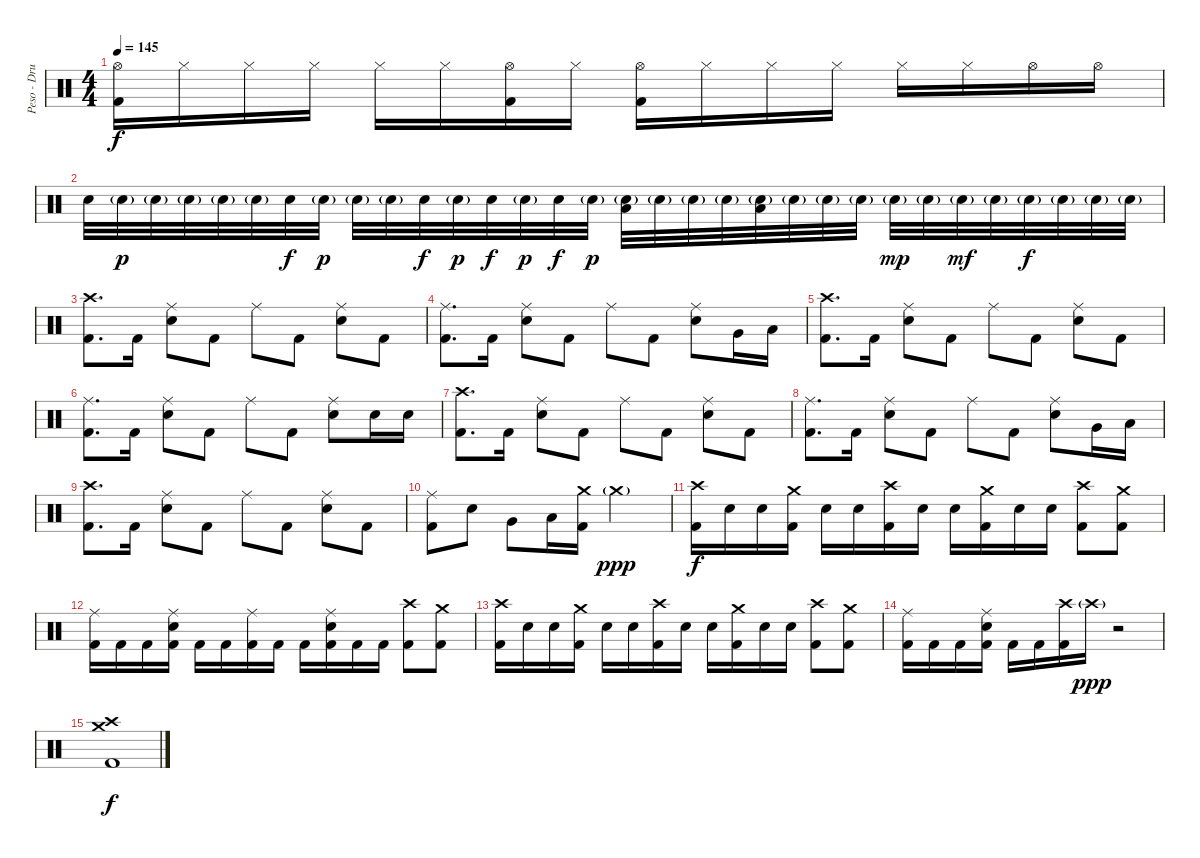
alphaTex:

\track ("Peso - Drums" "Peso - Dru") {instrument percussion}
\staff {score}
\articulation defaults
\ts (4 4)
\tempo 145
\clef neutral
\ks c
("Hi-Hat (open)" "Kick (hit) 2").16{dy f} "Hi-Hat (closed)".16 "Hi-Hat (closed)".16 "Hi-Hat (closed)".16 "Hi-Hat (closed)".16 "Hi-Hat (closed)".16 ("Hi-Hat (open)" "Kick (hit) 2").16 "Hi-Hat (closed)".16 ("Hi-Hat (open)" "Kick (hit) 2").16 "Hi-Hat (closed)".16 "Hi-Hat (closed)".16 "Hi-Hat (closed)".16 "Hi-Hat (closed)".16 "Hi-Hat (closed)".16 "Hi-Hat (open)".16 "Hi-Hat (open)".16 |
"Electric Snare (hit)".32 "Electric Snare (hit)"{g}.32{dy p} "Electric Snare (hit)"{g}.32 "Electric Snare (hit)"{g}.32 "Electric Snare (hit)"{g}.32 "Electric Snare (hit)"{g}.32 "Electric Snare (hit)".32{dy f} "Electric Snare (hit)"{g}.32{dy p} "Electric Snare (hit)"{g}.32 "Electric Snare (hit)"{g}.32 "Electric Snare (hit)".32{dy f} "Electric Snare (hit)"{g}.32{dy p} "Electric Snare (hit)".32{dy f} "Electric Snare (hit)"{g}.32{dy p} "Electric Snare (hit)".32{dy f} "Electric Snare (hit)"{g}.32{dy p} ("Low Tom (hit)" "Electric Snare (hit)"{g}).32 "Electric Snare (hit)"{g}.32 "Electric Snare (hit)"{g}.32 "Electric Snare (hit)"{g}.32 ("Low Tom (hit)" "Electric Snare (hit)"{g}).32 "Electric Snare (hit)"{g}.32 "Electric Snare (hit)"{g}.32 "Electric Snare (hit)"{g}.32 "Electric Snare (hit)"{g}.32{dy mp} "Electric Snare (hit)"{g}.32 "Electric Snare (hit)"{g}.32{dy mf} "Electric Snare (hit)"{g}.32 "Electric Snare (hit)"{g}.32{dy f} "Electric Snare (hit)"{g}.32 "Electric Snare (hit)"{g}.32 "Electric Snare (hit)"{g}.32 |
("Crash high (hit)" "Kick (hit) 2").8{d} "Kick (hit) 2".16 ("Ride (middle)" "Electric Snare (hit)").8 "Kick (hit) 2".8 "Ride (middle)".8 "Kick (hit) 2".8 ("Ride (middle)" "Electric Snare (hit)").8 "Kick (hit) 2".8 |
("Ride (middle)" "Kick (hit) 2").8{d} "Kick (hit) 2".16 ("Ride (middle)" "Electric Snare (hit)").8 "Kick (hit) 2".8 "Ride (middle)".8 "Kick (hit) 2".8 ("Ride (middle)" "Electric Snare (hit)").8 "Very Low Tom (hit)".16 "Low Tom (hit)".16 |
("Crash high (hit)" "Kick (hit) 2").8{d} "Kick (hit) 2".16 ("Ride (middle)" "Electric Snare (hit)").8 "Kick (hit) 2".8 "Ride (middle)".8 "Kick (hit) 2".8 ("Ride (middle)" "Electric Snare (hit)").8 "Kick (hit) 2".8 |
("Ride (middle)" "Kick (hit) 2").8{d} "Kick (hit) 2".16 ("Ride (middle)" "Electric Snare (hit)").8 "Kick (hit) 2".8 "Ride (middle)".8 "Kick (hit) 2".8 ("Ride (middle)" "Electric Snare (hit)").8 "Electric Snare (hit)".16 "Electric Snare (hit)".16 |
("Crash high (hit)" "Kick (hit) 2").8{d} "Kick (hit) 2".16 ("Ride (middle)" "Electric Snare (hit)").8 "Kick (hit) 2".8 "Ride (middle)".8 "Kick (hit) 2".8 ("Ride (middle)" "Electric Snare (hit)").8 "Kick (hit) 2".8 |
("Ride (middle)" "Kick (hit) 2").8{d} "Kick (hit) 2".16 ("Ride (middle)" "Electric Snare (hit)").8 "Kick (hit) 2".8 "Ride (middle)".8 "Kick (hit) 2".8 ("Ride (middle)" "Electric Snare (hit)").8 "Very Low Tom (hit)".16 "Low Tom (hit)".16 |
("Crash high (hit)" "Kick (hit) 2").8{d} "Kick (hit) 2".16 ("Ride (middle)" "Electric Snare (hit)").8 "Kick (hit) 2".8 "Ride (middle)".8 "Kick (hit) 2".8 ("Ride (middle)" "Electric Snare (hit)").8 "Kick (hit) 2".8 |
("Ride (middle)" "Kick (hit) 2").8 "Electric Snare (hit)".8 "Very Low Tom (hit)".8 "Low Floor Tom (hit)".16 ("Crash medium (hit)" "Kick (hit) 2").16 "Crash medium (hit)"{g}.2{dy ppp} |
("Crash high (hit)" "Kick (hit) 2").16{dy f} "Electric Snare (hit)".16 "Electric Snare (hit)".16 ("Crash medium (hit)" "Kick (hit) 2").16 "Electric Snare (hit)".16 "Electric Snare (hit)".16 ("Crash high (hit)" "Kick (hit) 2").16 "Electric Snare (hit)".16 "Electric Snare (hit)".16 ("Crash medium (hit)" "Kick (hit) 2").16 "Electric Snare (hit)".16 "Electric Snare (hit)".16 ("Crash high (hit)" "Kick (hit) 2").8 ("Crash medium (hit)" "Kick (hit) 2").8 |
("Ride (middle)" "Kick (hit) 2").16 "Kick (hit) 2".16 "Kick (hit) 2".16 ("Ride (middle)" "Electric Snare (hit)" "Kick (hit) 2").16 "Kick (hit) 2".16 "Kick (hit) 2".16 ("Ride (middle)" "Kick (hit) 2").16 "Kick (hit) 2".16 "Kick (hit) 2".16 ("Ride (middle)" "Electric Snare (hit)" "Kick (hit) 2").16 "Kick (hit) 2".16 "Kick (hit) 2".16 ("Crash high (hit)" "Kick (hit) 2").8 ("Crash medium (hit)" "Kick (hit) 2").8 |
("Crash high (hit)" "Kick (hit) 2").16 "Electric Snare (hit)".16 "Electric Snare (hit)".16 ("Crash medium (hit)" "Kick (hit) 2").16 "Electric Snare (hit)".16 "Electric Snare (hit)".16 ("Crash high (hit)" "Kick (hit) 2").16 "Electric Snare (hit)".16 "Electric Snare (hit)".16 ("Crash medium (hit)" "Kick (hit) 2").16 "Electric Snare (hit)".16 "Electric Snare (hit)".16 ("Crash high (hit)" "Kick (hit) 2").8 ("Crash medium (hit)" "Kick (hit) 2").8 |
("Ride (middle)" "Kick (hit) 2").16 "Kick (hit) 2".16 "Kick (hit) 2".16 ("Ride (middle)" "Electric Snare (hit)" "Kick (hit) 2").16 "Kick (hit) 2".16 "Kick (hit) 2".16 ("Crash high (hit)" "Kick (hit) 2").16 "Crash high (hit)"{g}.16{dy ppp} r.2 |
("Crash medium (hit)" "Crash high (hit)" "Kick (hit) 2").1{dy f}
